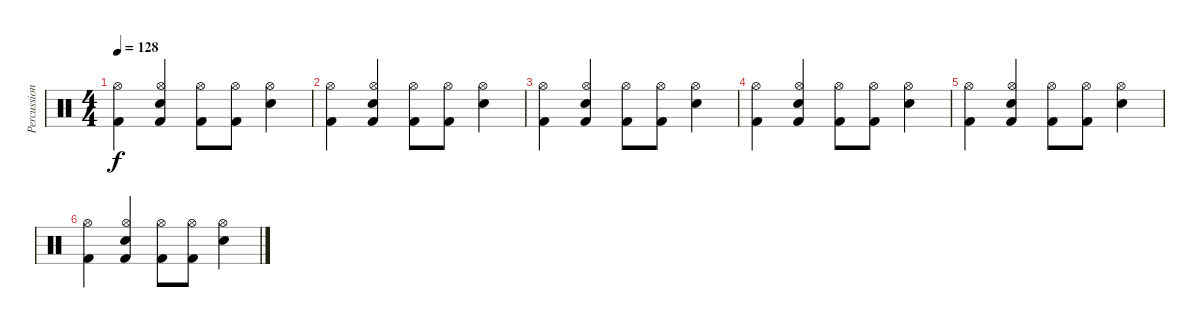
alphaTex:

\track ("Percussion" "Percussion") {instrument percussion}
\staff {score}
\articulation defaults
\ts (4 4)
\tempo 128
\clef neutral
\ks c
("Kick (hit) 2" "Hi-Hat (open)").4{dy f} ("Kick (hit) 2" "Snare (hit) 2" "Hi-Hat (open)").4 ("Kick (hit) 2" "Hi-Hat (open)").8 ("Kick (hit) 2" "Hi-Hat (open)").8 ("Snare (hit) 2" "Hi-Hat (open)").4 |
("Kick (hit) 2" "Hi-Hat (open)").4 ("Kick (hit) 2" "Snare (hit) 2" "Hi-Hat (open)").4 ("Kick (hit) 2" "Hi-Hat (open)").8 ("Kick (hit) 2" "Hi-Hat (open)").8 ("Snare (hit) 2" "Hi-Hat (open)").4 |
("Kick (hit) 2" "Hi-Hat (open)").4 ("Kick (hit) 2" "Snare (hit) 2" "Hi-Hat (open)").4 ("Kick (hit) 2" "Hi-Hat (open)").8 ("Kick (hit) 2" "Hi-Hat (open)").8 ("Snare (hit) 2" "Hi-Hat (open)").4 |
("Kick (hit) 2" "Hi-Hat (open)").4 ("Kick (hit) 2" "Snare (hit) 2" "Hi-Hat (open)").4 ("Kick (hit) 2" "Hi-Hat (open)").8 ("Kick (hit) 2" "Hi-Hat (open)").8 ("Snare (hit) 2" "Hi-Hat (open)").4 |
("Kick (hit) 2" "Hi-Hat (open)").4 ("Kick (hit) 2" "Snare (hit) 2" "Hi-Hat (open)").4 ("Kick (hit) 2" "Hi-Hat (open)").8 ("Kick (hit) 2" "Hi-Hat (open)").8 ("Snare (hit) 2" "Hi-Hat (open)").4 |
("Kick (hit) 2" "Hi-Hat (open)").4 ("Kick (hit) 2" "Snare (hit) 2" "Hi-Hat (open)").4 ("Kick (hit) 2" "Hi-Hat (open)").8 ("Kick (hit) 2" "Hi-Hat (open)").8 ("Snare (hit) 2" "Hi-Hat (open)").4
